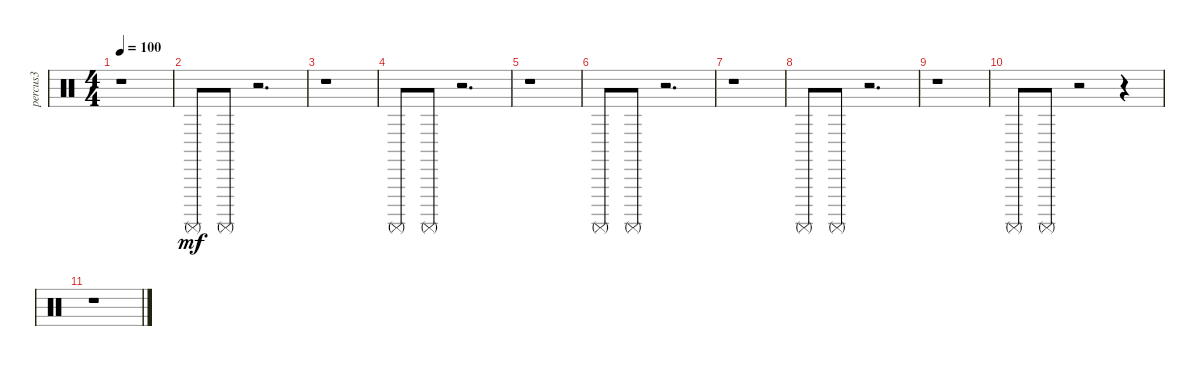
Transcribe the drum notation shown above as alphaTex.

\track ("percus3" "percus3") {instrument percussion}
\staff {score}
\articulation defaults
\ts (4 4)
\tempo 100
\clef neutral
\ks c
r.1{dy mf} |
"Surdo (mute)".8 "Surdo (mute)".8 r.2{d} |
r.1 |
"Surdo (mute)".8 "Surdo (mute)".8 r.2{d} |
r.1 |
"Surdo (mute)".8 "Surdo (mute)".8 r.2{d} |
r.1 |
"Surdo (mute)".8 "Surdo (mute)".8 r.2{d} |
r.1 |
"Surdo (mute)".8 "Surdo (mute)".8 r.2 r.4 |
r.1
